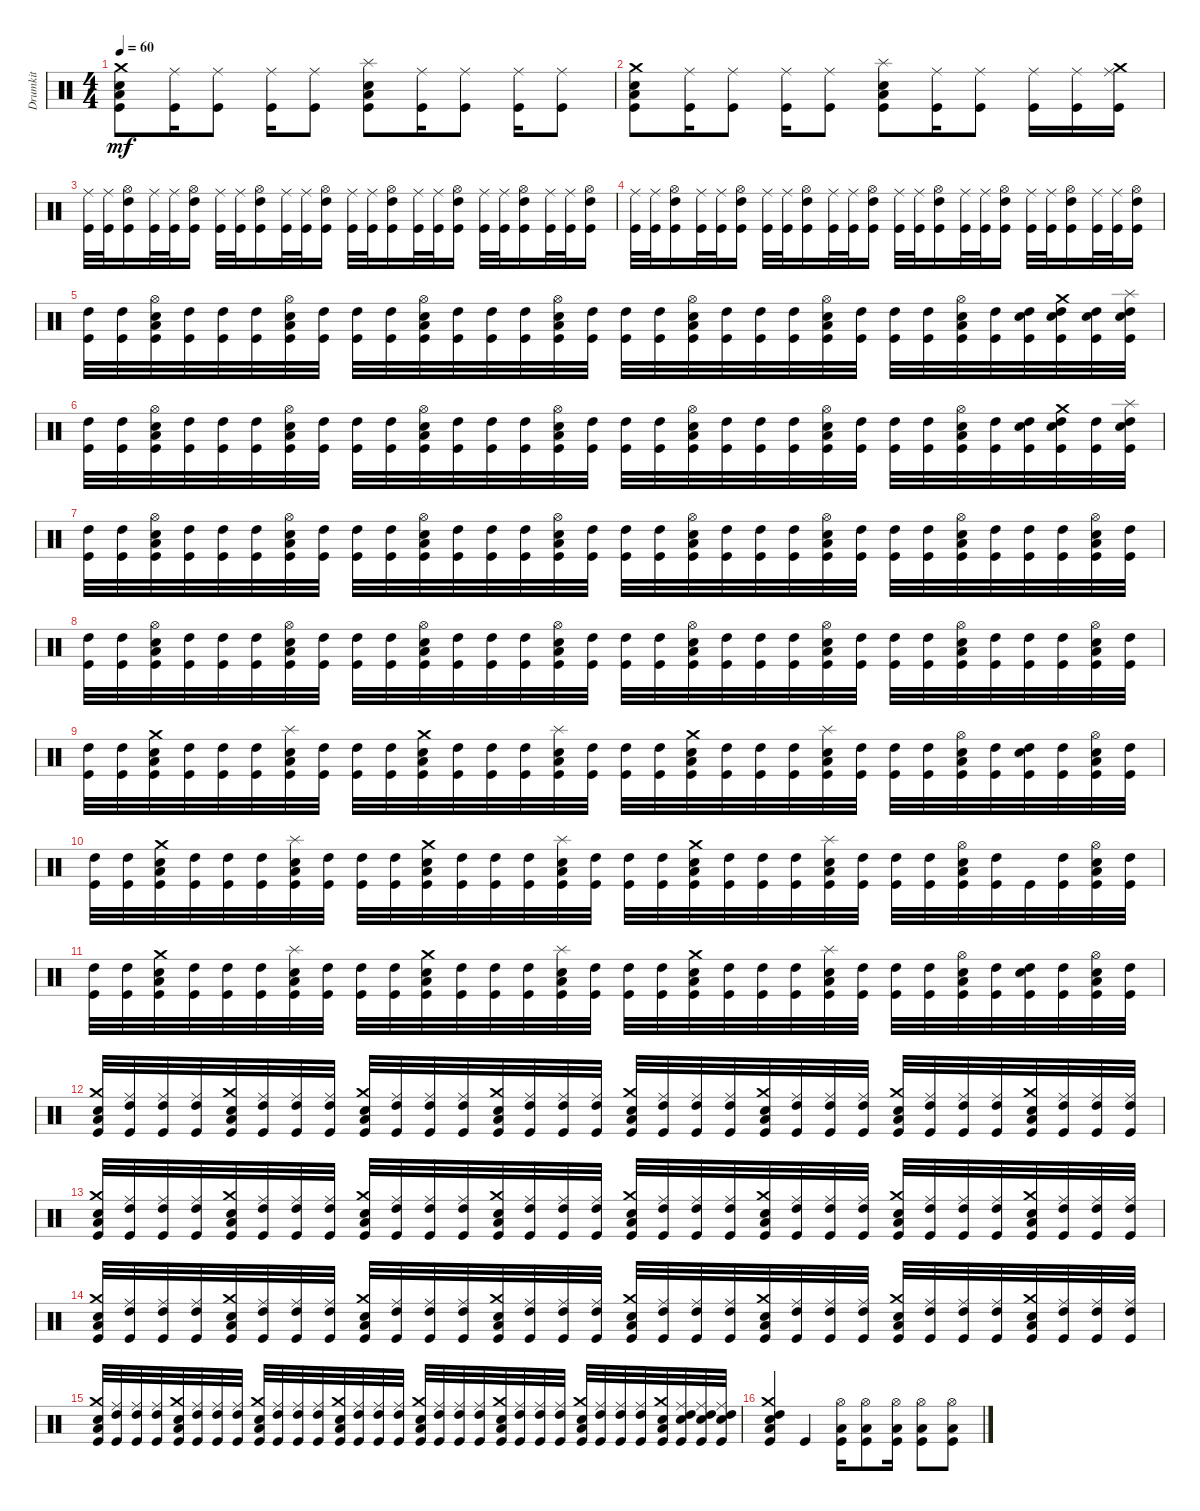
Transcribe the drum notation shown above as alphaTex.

\track ("Drumkit" "Drumkit") {instrument percussion}
\staff {score}
\articulation defaults
\ts (4 4)
\tempo 60
\clef neutral
\ks c
("Kick (hit)" "Snare (hit) 2" "Crash medium (hit)" "Low Tom (hit)").8{dy mf} ("Kick (hit)" "Ride (middle)").16 ("Kick (hit)" "Ride (middle)").8 ("Kick (hit)" "Ride (middle)").16 ("Kick (hit)" "Ride (middle)").8 ("Kick (hit)" "Snare (hit) 2" "Low Tom (hit)" "Splash (hit)").8 ("Kick (hit)" "Ride (middle)").16 ("Kick (hit)" "Ride (middle)").8 ("Kick (hit)" "Ride (middle)").16 ("Kick (hit)" "Ride (middle)").8 |
("Kick (hit)" "Snare (hit) 2" "Crash medium (hit)" "Low Tom (hit)").8 ("Kick (hit)" "Ride (middle)").16 ("Kick (hit)" "Ride (middle)").8 ("Kick (hit)" "Ride (middle)").16 ("Kick (hit)" "Ride (middle)").8 ("Kick (hit)" "Snare (hit) 2" "Low Tom (hit)" "Splash (hit)").8 ("Kick (hit)" "Ride (middle)").16 ("Kick (hit)" "Ride (middle)").8 ("Kick (hit)" "Ride (middle)").16 ("Kick (hit)" "Ride (middle)").16 ("Kick (hit)" "Ride (middle)" "Crash medium (hit)").16 |
("Kick (hit)" "Ride (middle)").32 ("Kick (hit)" "Ride (middle)").32 ("Kick (hit)" "High Tom (hit)" "Hi-Hat (open)").16 ("Kick (hit)" "Ride (middle)").32 ("Kick (hit)" "Ride (middle)").32 ("Kick (hit)" "High Tom (hit)" "Hi-Hat (open)").16 ("Kick (hit)" "Ride (middle)").32 ("Kick (hit)" "Ride (middle)").32 ("Kick (hit)" "High Tom (hit)" "Hi-Hat (open)").16 ("Kick (hit)" "Ride (middle)").32 ("Kick (hit)" "Ride (middle)").32 ("Kick (hit)" "High Tom (hit)" "Hi-Hat (open)").16 ("Kick (hit)" "Ride (middle)").32 ("Kick (hit)" "Ride (middle)").32 ("Kick (hit)" "High Tom (hit)" "Hi-Hat (open)").16 ("Kick (hit)" "Ride (middle)").32 ("Kick (hit)" "Ride (middle)").32 ("Kick (hit)" "High Tom (hit)" "Hi-Hat (open)").16 ("Kick (hit)" "Ride (middle)").32 ("Kick (hit)" "Ride (middle)").32 ("Kick (hit)" "High Tom (hit)" "Hi-Hat (open)").16 ("Kick (hit)" "Ride (middle)").32 ("Kick (hit)" "Ride (middle)").32 ("Kick (hit)" "High Tom (hit)" "Hi-Hat (open)").16 |
("Kick (hit)" "Ride (middle)").32 ("Kick (hit)" "Ride (middle)").32 ("Kick (hit)" "High Tom (hit)" "Hi-Hat (open)").16 ("Kick (hit)" "Ride (middle)").32 ("Kick (hit)" "Ride (middle)").32 ("Kick (hit)" "High Tom (hit)" "Hi-Hat (open)").16 ("Kick (hit)" "Ride (middle)").32 ("Kick (hit)" "Ride (middle)").32 ("Kick (hit)" "High Tom (hit)" "Hi-Hat (open)").16 ("Kick (hit)" "Ride (middle)").32 ("Kick (hit)" "Ride (middle)").32 ("Kick (hit)" "High Tom (hit)" "Hi-Hat (open)").16 ("Kick (hit)" "Ride (middle)").32 ("Kick (hit)" "Ride (middle)").32 ("Kick (hit)" "High Tom (hit)" "Hi-Hat (open)").16 ("Kick (hit)" "Ride (middle)").32 ("Kick (hit)" "Ride (middle)").32 ("Kick (hit)" "High Tom (hit)" "Hi-Hat (open)").16 ("Kick (hit)" "Ride (middle)").32 ("Kick (hit)" "Ride (middle)").32 ("Kick (hit)" "High Tom (hit)" "Hi-Hat (open)").16 ("Kick (hit)" "Ride (middle)").32 ("Kick (hit)" "Ride (middle)").32 ("Kick (hit)" "High Tom (hit)" "Hi-Hat (open)").16 |
("Kick (hit)" "High Tom (hit)").32 ("Kick (hit)" "High Tom (hit)").32 ("Kick (hit)" "Snare (hit) 2" "Hi-Hat (open)" "Low Tom (hit)").32 ("Kick (hit)" "High Tom (hit)").32 ("Kick (hit)" "High Tom (hit)").32 ("Kick (hit)" "High Tom (hit)").32 ("Kick (hit)" "Snare (hit) 2" "Hi-Hat (open)" "Low Tom (hit)").32 ("Kick (hit)" "High Tom (hit)").32 ("Kick (hit)" "High Tom (hit)").32 ("Kick (hit)" "High Tom (hit)").32 ("Kick (hit)" "Snare (hit) 2" "Hi-Hat (open)" "Low Tom (hit)").32 ("Kick (hit)" "High Tom (hit)").32 ("Kick (hit)" "High Tom (hit)").32 ("Kick (hit)" "High Tom (hit)").32 ("Kick (hit)" "Snare (hit) 2" "Hi-Hat (open)" "Low Tom (hit)").32 ("Kick (hit)" "High Tom (hit)").32 ("Kick (hit)" "High Tom (hit)").32 ("Kick (hit)" "High Tom (hit)").32 ("Kick (hit)" "Snare (hit) 2" "Hi-Hat (open)" "Low Tom (hit)").32 ("Kick (hit)" "High Tom (hit)").32 ("Kick (hit)" "High Tom (hit)").32 ("Kick (hit)" "High Tom (hit)").32 ("Kick (hit)" "Snare (hit) 2" "Hi-Hat (open)" "Low Tom (hit)").32 ("Kick (hit)" "High Tom (hit)").32 ("Kick (hit)" "High Tom (hit)").32 ("Kick (hit)" "High Tom (hit)").32 ("Kick (hit)" "Snare (hit) 2" "Hi-Hat (open)" "Low Tom (hit)").32 ("Kick (hit)" "High Tom (hit)").32 ("Kick (hit)" "High Tom (hit)" "Snare (hit) 2").32 ("Kick (hit)" "Crash medium (hit)" "High Tom (hit)" "Snare (hit) 2").32 ("Kick (hit)" "High Tom (hit)" "Snare (hit) 2").32 ("Kick (hit)" "Splash (hit)" "High Tom (hit)" "Snare (hit) 2").32 |
("Kick (hit)" "High Tom (hit)").32 ("Kick (hit)" "High Tom (hit)").32 ("Kick (hit)" "Snare (hit) 2" "Hi-Hat (open)" "Low Tom (hit)").32 ("Kick (hit)" "High Tom (hit)").32 ("Kick (hit)" "High Tom (hit)").32 ("Kick (hit)" "High Tom (hit)").32 ("Kick (hit)" "Snare (hit) 2" "Hi-Hat (open)" "Low Tom (hit)").32 ("Kick (hit)" "High Tom (hit)").32 ("Kick (hit)" "High Tom (hit)").32 ("Kick (hit)" "High Tom (hit)").32 ("Kick (hit)" "Snare (hit) 2" "Hi-Hat (open)" "Low Tom (hit)").32 ("Kick (hit)" "High Tom (hit)").32 ("Kick (hit)" "High Tom (hit)").32 ("Kick (hit)" "High Tom (hit)").32 ("Kick (hit)" "Snare (hit) 2" "Hi-Hat (open)" "Low Tom (hit)").32 ("Kick (hit)" "High Tom (hit)").32 ("Kick (hit)" "High Tom (hit)").32 ("Kick (hit)" "High Tom (hit)").32 ("Kick (hit)" "Snare (hit) 2" "Hi-Hat (open)" "Low Tom (hit)").32 ("Kick (hit)" "High Tom (hit)").32 ("Kick (hit)" "High Tom (hit)").32 ("Kick (hit)" "High Tom (hit)").32 ("Kick (hit)" "Snare (hit) 2" "Hi-Hat (open)" "Low Tom (hit)").32 ("Kick (hit)" "High Tom (hit)").32 ("Kick (hit)" "High Tom (hit)").32 ("Kick (hit)" "High Tom (hit)").32 ("Kick (hit)" "Snare (hit) 2" "Hi-Hat (open)" "Low Tom (hit)").32 ("Kick (hit)" "High Tom (hit)").32 ("Kick (hit)" "High Tom (hit)" "Snare (hit) 2").32 ("Kick (hit)" "Crash medium (hit)" "High Tom (hit)" "Snare (hit) 2").32 ("Kick (hit)" "High Tom (hit)").32 ("Kick (hit)" "Splash (hit)" "High Tom (hit)" "Snare (hit) 2").32 |
("Kick (hit)" "High Tom (hit)").32 ("Kick (hit)" "High Tom (hit)").32 ("Kick (hit)" "Snare (hit) 2" "Hi-Hat (open)" "Low Tom (hit)").32 ("Kick (hit)" "High Tom (hit)").32 ("Kick (hit)" "High Tom (hit)").32 ("Kick (hit)" "High Tom (hit)").32 ("Kick (hit)" "Snare (hit) 2" "Hi-Hat (open)" "Low Tom (hit)").32 ("Kick (hit)" "High Tom (hit)").32 ("Kick (hit)" "High Tom (hit)").32 ("Kick (hit)" "High Tom (hit)").32 ("Kick (hit)" "Snare (hit) 2" "Hi-Hat (open)" "Low Tom (hit)").32 ("Kick (hit)" "High Tom (hit)").32 ("Kick (hit)" "High Tom (hit)").32 ("Kick (hit)" "High Tom (hit)").32 ("Kick (hit)" "Snare (hit) 2" "Hi-Hat (open)" "Low Tom (hit)").32 ("Kick (hit)" "High Tom (hit)").32 ("Kick (hit)" "High Tom (hit)").32 ("Kick (hit)" "High Tom (hit)").32 ("Kick (hit)" "Snare (hit) 2" "Hi-Hat (open)" "Low Tom (hit)").32 ("Kick (hit)" "High Tom (hit)").32 ("Kick (hit)" "High Tom (hit)").32 ("Kick (hit)" "High Tom (hit)").32 ("Kick (hit)" "Snare (hit) 2" "Hi-Hat (open)" "Low Tom (hit)").32 ("Kick (hit)" "High Tom (hit)").32 ("Kick (hit)" "High Tom (hit)").32 ("Kick (hit)" "High Tom (hit)").32 ("Kick (hit)" "Snare (hit) 2" "Hi-Hat (open)" "Low Tom (hit)").32 ("Kick (hit)" "High Tom (hit)").32 ("Kick (hit)" "High Tom (hit)").32 ("Kick (hit)" "High Tom (hit)").32 ("Kick (hit)" "Snare (hit) 2" "Hi-Hat (open)" "Low Tom (hit)").32 ("Kick (hit)" "High Tom (hit)").32 |
("Kick (hit)" "High Tom (hit)").32 ("Kick (hit)" "High Tom (hit)").32 ("Kick (hit)" "Snare (hit) 2" "Hi-Hat (open)" "Low Tom (hit)").32 ("Kick (hit)" "High Tom (hit)").32 ("Kick (hit)" "High Tom (hit)").32 ("Kick (hit)" "High Tom (hit)").32 ("Kick (hit)" "Snare (hit) 2" "Hi-Hat (open)" "Low Tom (hit)").32 ("Kick (hit)" "High Tom (hit)").32 ("Kick (hit)" "High Tom (hit)").32 ("Kick (hit)" "High Tom (hit)").32 ("Kick (hit)" "Snare (hit) 2" "Hi-Hat (open)" "Low Tom (hit)").32 ("Kick (hit)" "High Tom (hit)").32 ("Kick (hit)" "High Tom (hit)").32 ("Kick (hit)" "High Tom (hit)").32 ("Kick (hit)" "Snare (hit) 2" "Hi-Hat (open)" "Low Tom (hit)").32 ("Kick (hit)" "High Tom (hit)").32 ("Kick (hit)" "High Tom (hit)").32 ("Kick (hit)" "High Tom (hit)").32 ("Kick (hit)" "Snare (hit) 2" "Hi-Hat (open)" "Low Tom (hit)").32 ("Kick (hit)" "High Tom (hit)").32 ("Kick (hit)" "High Tom (hit)").32 ("Kick (hit)" "High Tom (hit)").32 ("Kick (hit)" "Snare (hit) 2" "Hi-Hat (open)" "Low Tom (hit)").32 ("Kick (hit)" "High Tom (hit)").32 ("Kick (hit)" "High Tom (hit)").32 ("Kick (hit)" "High Tom (hit)").32 ("Kick (hit)" "Snare (hit) 2" "Hi-Hat (open)" "Low Tom (hit)").32 ("Kick (hit)" "High Tom (hit)").32 ("Kick (hit)" "High Tom (hit)").32 ("Kick (hit)" "High Tom (hit)").32 ("Kick (hit)" "Snare (hit) 2" "Hi-Hat (open)" "Low Tom (hit)").32 ("Kick (hit)" "High Tom (hit)").32 |
("Kick (hit)" "High Tom (hit)").32 ("Kick (hit)" "High Tom (hit)").32 ("Kick (hit)" "Snare (hit) 2" "Low Tom (hit)" "Crash medium (hit)").32 ("Kick (hit)" "High Tom (hit)").32 ("Kick (hit)" "High Tom (hit)").32 ("Kick (hit)" "High Tom (hit)").32 ("Kick (hit)" "Snare (hit) 2" "Low Tom (hit)" "Splash (hit)").32 ("Kick (hit)" "High Tom (hit)").32 ("Kick (hit)" "High Tom (hit)").32 ("Kick (hit)" "High Tom (hit)").32 ("Kick (hit)" "Snare (hit) 2" "Low Tom (hit)" "Crash medium (hit)").32 ("Kick (hit)" "High Tom (hit)").32 ("Kick (hit)" "High Tom (hit)").32 ("Kick (hit)" "High Tom (hit)").32 ("Kick (hit)" "Snare (hit) 2" "Low Tom (hit)" "Splash (hit)").32 ("Kick (hit)" "High Tom (hit)").32 ("Kick (hit)" "High Tom (hit)").32 ("Kick (hit)" "High Tom (hit)").32 ("Kick (hit)" "Snare (hit) 2" "Low Tom (hit)" "Crash medium (hit)").32 ("Kick (hit)" "High Tom (hit)").32 ("Kick (hit)" "High Tom (hit)").32 ("Kick (hit)" "High Tom (hit)").32 ("Kick (hit)" "Snare (hit) 2" "Low Tom (hit)" "Splash (hit)").32 ("Kick (hit)" "High Tom (hit)").32 ("Kick (hit)" "High Tom (hit)").32 ("Kick (hit)" "High Tom (hit)").32 ("Kick (hit)" "Snare (hit) 2" "Hi-Hat (open)" "Low Tom (hit)").32 ("Kick (hit)" "High Tom (hit)").32 ("Kick (hit)" "High Tom (hit)" "Snare (hit) 2").32 ("Kick (hit)" "High Tom (hit)").32 ("Kick (hit)" "Snare (hit) 2" "Hi-Hat (open)" "Low Tom (hit)").32 ("Kick (hit)" "High Tom (hit)").32 |
("Kick (hit)" "High Tom (hit)").32 ("Kick (hit)" "High Tom (hit)").32 ("Kick (hit)" "Snare (hit) 2" "Low Tom (hit)" "Crash medium (hit)").32 ("Kick (hit)" "High Tom (hit)").32 ("Kick (hit)" "High Tom (hit)").32 ("Kick (hit)" "High Tom (hit)").32 ("Kick (hit)" "Snare (hit) 2" "Low Tom (hit)" "Splash (hit)").32 ("Kick (hit)" "High Tom (hit)").32 ("Kick (hit)" "High Tom (hit)").32 ("Kick (hit)" "High Tom (hit)").32 ("Kick (hit)" "Snare (hit) 2" "Low Tom (hit)" "Crash medium (hit)").32 ("Kick (hit)" "High Tom (hit)").32 ("Kick (hit)" "High Tom (hit)").32 ("Kick (hit)" "High Tom (hit)").32 ("Kick (hit)" "Snare (hit) 2" "Low Tom (hit)" "Splash (hit)").32 ("Kick (hit)" "High Tom (hit)").32 ("Kick (hit)" "High Tom (hit)").32 ("Kick (hit)" "High Tom (hit)").32 ("Kick (hit)" "Snare (hit) 2" "Low Tom (hit)" "Crash medium (hit)").32 ("Kick (hit)" "High Tom (hit)").32 ("Kick (hit)" "High Tom (hit)").32 ("Kick (hit)" "High Tom (hit)").32 ("Kick (hit)" "Snare (hit) 2" "Low Tom (hit)" "Splash (hit)").32 ("Kick (hit)" "High Tom (hit)").32 ("Kick (hit)" "High Tom (hit)").32 ("Kick (hit)" "High Tom (hit)").32 ("Kick (hit)" "Snare (hit) 2" "Hi-Hat (open)" "Low Tom (hit)").32 ("Kick (hit)" "High Tom (hit)").32 "Kick (hit)".32 ("Kick (hit)" "High Tom (hit)").32 ("Kick (hit)" "Snare (hit) 2" "Hi-Hat (open)" "Low Tom (hit)").32 ("Kick (hit)" "High Tom (hit)").32 |
("Kick (hit)" "High Tom (hit)").32 ("Kick (hit)" "High Tom (hit)").32 ("Kick (hit)" "Snare (hit) 2" "Low Tom (hit)" "Crash medium (hit)").32 ("Kick (hit)" "High Tom (hit)").32 ("Kick (hit)" "High Tom (hit)").32 ("Kick (hit)" "High Tom (hit)").32 ("Kick (hit)" "Snare (hit) 2" "Low Tom (hit)" "Splash (hit)").32 ("Kick (hit)" "High Tom (hit)").32 ("Kick (hit)" "High Tom (hit)").32 ("Kick (hit)" "High Tom (hit)").32 ("Kick (hit)" "Snare (hit) 2" "Low Tom (hit)" "Crash medium (hit)").32 ("Kick (hit)" "High Tom (hit)").32 ("Kick (hit)" "High Tom (hit)").32 ("Kick (hit)" "High Tom (hit)").32 ("Kick (hit)" "Snare (hit) 2" "Low Tom (hit)" "Splash (hit)").32 ("Kick (hit)" "High Tom (hit)").32 ("Kick (hit)" "High Tom (hit)").32 ("Kick (hit)" "High Tom (hit)").32 ("Kick (hit)" "Snare (hit) 2" "Low Tom (hit)" "Crash medium (hit)").32 ("Kick (hit)" "High Tom (hit)").32 ("Kick (hit)" "High Tom (hit)").32 ("Kick (hit)" "High Tom (hit)").32 ("Kick (hit)" "Snare (hit) 2" "Low Tom (hit)" "Splash (hit)").32 ("Kick (hit)" "High Tom (hit)").32 ("Kick (hit)" "High Tom (hit)").32 ("Kick (hit)" "High Tom (hit)").32 ("Kick (hit)" "Snare (hit) 2" "Hi-Hat (open)" "Low Tom (hit)").32 ("Kick (hit)" "High Tom (hit)").32 ("Kick (hit)" "High Tom (hit)" "Snare (hit) 2").32 ("Kick (hit)" "High Tom (hit)").32 ("Kick (hit)" "Snare (hit) 2" "Hi-Hat (open)" "Low Tom (hit)").32 ("Kick (hit)" "High Tom (hit)").32 |
("Kick (hit)" "Snare (hit) 2" "Low Tom (hit)" "Crash medium (hit)").32 ("Kick (hit)" "High Tom (hit)" "Ride (middle)").32 ("Kick (hit)" "High Tom (hit)" "Ride (middle)").32 ("Kick (hit)" "High Tom (hit)" "Ride (middle)").32 ("Kick (hit)" "Snare (hit) 2" "Low Tom (hit)" "Crash medium (hit)").32 ("Kick (hit)" "High Tom (hit)" "Ride (middle)").32 ("Kick (hit)" "High Tom (hit)" "Ride (middle)").32 ("Kick (hit)" "High Tom (hit)" "Ride (middle)").32 ("Kick (hit)" "Snare (hit) 2" "Low Tom (hit)" "Crash medium (hit)").32 ("Kick (hit)" "High Tom (hit)" "Ride (middle)").32 ("Kick (hit)" "High Tom (hit)" "Ride (middle)").32 ("Kick (hit)" "High Tom (hit)" "Ride (middle)").32 ("Kick (hit)" "Snare (hit) 2" "Low Tom (hit)" "Crash medium (hit)").32 ("Kick (hit)" "High Tom (hit)" "Ride (middle)").32 ("Kick (hit)" "High Tom (hit)" "Ride (middle)").32 ("Kick (hit)" "High Tom (hit)" "Ride (middle)").32 ("Kick (hit)" "Snare (hit) 2" "Low Tom (hit)" "Crash medium (hit)").32 ("Kick (hit)" "High Tom (hit)" "Ride (middle)").32 ("Kick (hit)" "High Tom (hit)" "Ride (middle)").32 ("Kick (hit)" "High Tom (hit)" "Ride (middle)").32 ("Kick (hit)" "Snare (hit) 2" "Low Tom (hit)" "Crash medium (hit)").32 ("Kick (hit)" "High Tom (hit)" "Ride (middle)").32 ("Kick (hit)" "High Tom (hit)" "Ride (middle)").32 ("Kick (hit)" "High Tom (hit)" "Ride (middle)").32 ("Kick (hit)" "Snare (hit) 2" "Low Tom (hit)" "Crash medium (hit)").32 ("Kick (hit)" "High Tom (hit)" "Ride (middle)").32 ("Kick (hit)" "High Tom (hit)" "Ride (middle)").32 ("Kick (hit)" "High Tom (hit)" "Ride (middle)").32 ("Kick (hit)" "Snare (hit) 2" "Low Tom (hit)" "Crash medium (hit)").32 ("Kick (hit)" "High Tom (hit)" "Ride (middle)").32 ("Kick (hit)" "High Tom (hit)" "Ride (middle)").32 ("Kick (hit)" "High Tom (hit)" "Ride (middle)").32 |
("Kick (hit)" "Snare (hit) 2" "Low Tom (hit)" "Crash medium (hit)").32 ("Kick (hit)" "High Tom (hit)" "Ride (middle)").32 ("Kick (hit)" "High Tom (hit)" "Ride (middle)").32 ("Kick (hit)" "High Tom (hit)" "Ride (middle)").32 ("Kick (hit)" "Snare (hit) 2" "Low Tom (hit)" "Crash medium (hit)").32 ("Kick (hit)" "High Tom (hit)" "Ride (middle)").32 ("Kick (hit)" "High Tom (hit)" "Ride (middle)").32 ("Kick (hit)" "High Tom (hit)" "Ride (middle)").32 ("Kick (hit)" "Snare (hit) 2" "Low Tom (hit)" "Crash medium (hit)").32 ("Kick (hit)" "High Tom (hit)" "Ride (middle)").32 ("Kick (hit)" "High Tom (hit)" "Ride (middle)").32 ("Kick (hit)" "High Tom (hit)" "Ride (middle)").32 ("Kick (hit)" "Snare (hit) 2" "Low Tom (hit)" "Crash medium (hit)").32 ("Kick (hit)" "High Tom (hit)" "Ride (middle)").32 ("Kick (hit)" "High Tom (hit)" "Ride (middle)").32 ("Kick (hit)" "High Tom (hit)" "Ride (middle)").32 ("Kick (hit)" "Snare (hit) 2" "Low Tom (hit)" "Crash medium (hit)").32 ("Kick (hit)" "High Tom (hit)" "Ride (middle)").32 ("Kick (hit)" "High Tom (hit)" "Ride (middle)").32 ("Kick (hit)" "High Tom (hit)" "Ride (middle)").32 ("Kick (hit)" "Snare (hit) 2" "Low Tom (hit)" "Crash medium (hit)").32 ("Kick (hit)" "High Tom (hit)" "Ride (middle)").32 ("Kick (hit)" "High Tom (hit)" "Ride (middle)").32 ("Kick (hit)" "High Tom (hit)" "Ride (middle)").32 ("Kick (hit)" "Snare (hit) 2" "Low Tom (hit)" "Crash medium (hit)").32 ("Kick (hit)" "High Tom (hit)" "Ride (middle)").32 ("Kick (hit)" "High Tom (hit)" "Ride (middle)").32 ("Kick (hit)" "High Tom (hit)" "Ride (middle)").32 ("Kick (hit)" "Snare (hit) 2" "Low Tom (hit)" "Crash medium (hit)").32 ("Kick (hit)" "High Tom (hit)" "Ride (middle)").32 ("Kick (hit)" "High Tom (hit)" "Ride (middle)").32 ("Kick (hit)" "High Tom (hit)" "Ride (middle)").32 |
("Kick (hit)" "Snare (hit) 2" "Low Tom (hit)" "Crash medium (hit)").32 ("Kick (hit)" "High Tom (hit)" "Ride (middle)").32 ("Kick (hit)" "High Tom (hit)" "Ride (middle)").32 ("Kick (hit)" "High Tom (hit)" "Ride (middle)").32 ("Kick (hit)" "Snare (hit) 2" "Low Tom (hit)" "Crash medium (hit)").32 ("Kick (hit)" "High Tom (hit)" "Ride (middle)").32 ("Kick (hit)" "High Tom (hit)" "Ride (middle)").32 ("Kick (hit)" "High Tom (hit)" "Ride (middle)").32 ("Kick (hit)" "Snare (hit) 2" "Low Tom (hit)" "Crash medium (hit)").32 ("Kick (hit)" "High Tom (hit)" "Ride (middle)").32 ("Kick (hit)" "High Tom (hit)" "Ride (middle)").32 ("Kick (hit)" "High Tom (hit)" "Ride (middle)").32 ("Kick (hit)" "Snare (hit) 2" "Low Tom (hit)" "Crash medium (hit)").32 ("Kick (hit)" "High Tom (hit)" "Ride (middle)").32 ("Kick (hit)" "High Tom (hit)" "Ride (middle)").32 ("Kick (hit)" "High Tom (hit)" "Ride (middle)").32 ("Kick (hit)" "Snare (hit) 2" "Low Tom (hit)" "Crash medium (hit)").32 ("Kick (hit)" "High Tom (hit)" "Ride (middle)").32 ("Kick (hit)" "High Tom (hit)" "Ride (middle)").32 ("Kick (hit)" "High Tom (hit)" "Ride (middle)").32 ("Kick (hit)" "Snare (hit) 2" "Low Tom (hit)" "Crash medium (hit)").32 ("Kick (hit)" "High Tom (hit)" "Ride (middle)").32 ("Kick (hit)" "High Tom (hit)" "Ride (middle)").32 ("Kick (hit)" "High Tom (hit)" "Ride (middle)").32 ("Kick (hit)" "Snare (hit) 2" "Low Tom (hit)" "Crash medium (hit)").32 ("Kick (hit)" "High Tom (hit)" "Ride (middle)").32 ("Kick (hit)" "High Tom (hit)" "Ride (middle)").32 ("Kick (hit)" "High Tom (hit)" "Ride (middle)").32 ("Kick (hit)" "Snare (hit) 2" "Low Tom (hit)" "Crash medium (hit)").32 ("Kick (hit)" "High Tom (hit)" "Ride (middle)").32 ("Kick (hit)" "High Tom (hit)" "Ride (middle)").32 ("Kick (hit)" "High Tom (hit)" "Ride (middle)").32 |
("Kick (hit)" "Snare (hit) 2" "Low Tom (hit)" "Crash medium (hit)").32 ("Kick (hit)" "High Tom (hit)" "Ride (middle)").32 ("Kick (hit)" "High Tom (hit)" "Ride (middle)").32 ("Kick (hit)" "High Tom (hit)" "Ride (middle)").32 ("Kick (hit)" "Snare (hit) 2" "Low Tom (hit)" "Crash medium (hit)").32 ("Kick (hit)" "High Tom (hit)" "Ride (middle)").32 ("Kick (hit)" "High Tom (hit)" "Ride (middle)").32 ("Kick (hit)" "High Tom (hit)" "Ride (middle)").32 ("Kick (hit)" "Snare (hit) 2" "Low Tom (hit)" "Crash medium (hit)").32 ("Kick (hit)" "High Tom (hit)" "Ride (middle)").32 ("Kick (hit)" "High Tom (hit)" "Ride (middle)").32 ("Kick (hit)" "High Tom (hit)" "Ride (middle)").32 ("Kick (hit)" "Snare (hit) 2" "Low Tom (hit)" "Crash medium (hit)").32 ("Kick (hit)" "High Tom (hit)" "Ride (middle)").32 ("Kick (hit)" "High Tom (hit)" "Ride (middle)").32 ("Kick (hit)" "High Tom (hit)" "Ride (middle)").32 ("Kick (hit)" "Snare (hit) 2" "Low Tom (hit)" "Crash medium (hit)").32 ("Kick (hit)" "High Tom (hit)" "Ride (middle)").32 ("Kick (hit)" "High Tom (hit)" "Ride (middle)").32 ("Kick (hit)" "High Tom (hit)" "Ride (middle)").32 ("Kick (hit)" "Snare (hit) 2" "Low Tom (hit)" "Crash medium (hit)").32 ("Kick (hit)" "High Tom (hit)" "Ride (middle)").32 ("Kick (hit)" "High Tom (hit)" "Ride (middle)").32 ("Kick (hit)" "High Tom (hit)" "Ride (middle)").32 ("Kick (hit)" "Snare (hit) 2" "Low Tom (hit)" "Crash medium (hit)").32 ("Kick (hit)" "High Tom (hit)" "Ride (middle)").32 ("Kick (hit)" "High Tom (hit)" "Ride (middle)").32 ("Kick (hit)" "High Tom (hit)" "Ride (middle)").32 ("Kick (hit)" "Snare (hit) 2" "Low Tom (hit)" "Crash medium (hit)").32 ("Kick (hit)" "High Tom (hit)" "Ride (middle)" "Snare (hit) 2").32 ("Kick (hit)" "High Tom (hit)" "Ride (middle)" "Snare (hit) 2").32 ("Kick (hit)" "High Tom (hit)" "Ride (middle)" "Snare (hit) 2").32 |
("Kick (hit)" "Snare (hit) 2" "Crash medium (hit)" "High Tom (hit)" "Low Tom (hit)").4 "Kick (hit)".4 ("Kick (hit)" "Low Tom (hit)" "Hi-Hat (open)").16 ("Kick (hit)" "Low Tom (hit)" "Hi-Hat (open)").8 ("Kick (hit)" "Low Tom (hit)" "Hi-Hat (open)").16 ("Kick (hit)" "Low Tom (hit)" "Hi-Hat (open)").8 ("Kick (hit)" "Low Tom (hit)" "Hi-Hat (open)").8
